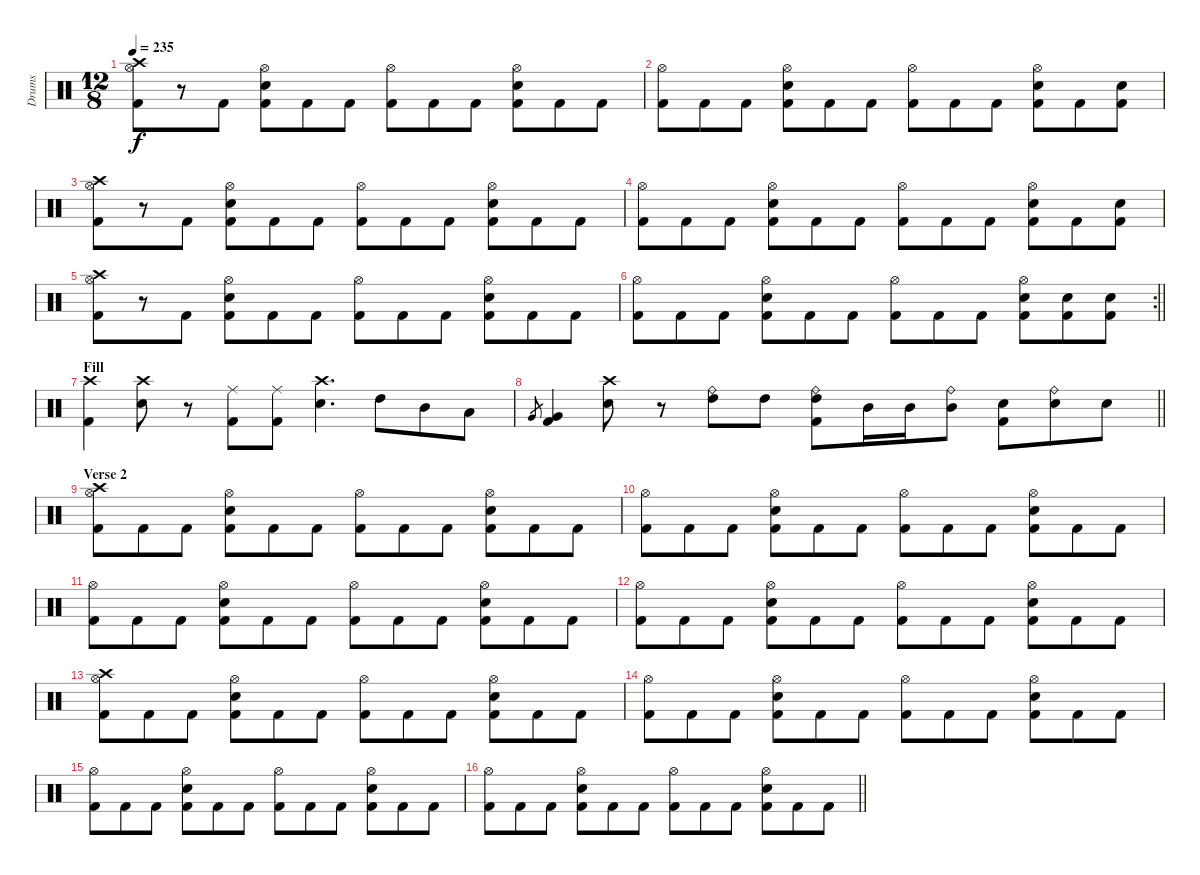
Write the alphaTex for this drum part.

\track ("Drums" "Drums") {instrument percussion}
\staff {score}
\articulation defaults
\ts (12 8)
\tempo 235
\clef neutral
\ks c
("Crash high (hit)" "Hi-Hat (open)" "Kick (hit) 2").8{dy f} r.8 "Kick (hit) 2".8 ("Hi-Hat (open)" "Snare (hit) 2" "Kick (hit) 2").8 "Kick (hit) 2".8 "Kick (hit) 2".8 ("Hi-Hat (open)" "Kick (hit) 2").8 "Kick (hit) 2".8 "Kick (hit) 2".8 ("Hi-Hat (open)" "Snare (hit) 2" "Kick (hit) 2").8 "Kick (hit) 2".8 "Kick (hit) 2".8 |
("Hi-Hat (open)" "Kick (hit) 2").8 "Kick (hit) 2".8 "Kick (hit) 2".8 ("Hi-Hat (open)" "Snare (hit) 2" "Kick (hit) 2").8 "Kick (hit) 2".8 "Kick (hit) 2".8 ("Hi-Hat (open)" "Kick (hit) 2").8 "Kick (hit) 2".8 "Kick (hit) 2".8 ("Hi-Hat (open)" "Snare (hit) 2" "Kick (hit) 2").8 "Kick (hit) 2".8 ("Snare (hit) 2" "Kick (hit) 2").8 |
("Crash high (hit)" "Hi-Hat (open)" "Kick (hit) 2").8 r.8 "Kick (hit) 2".8 ("Hi-Hat (open)" "Snare (hit) 2" "Kick (hit) 2").8 "Kick (hit) 2".8 "Kick (hit) 2".8 ("Hi-Hat (open)" "Kick (hit) 2").8 "Kick (hit) 2".8 "Kick (hit) 2".8 ("Hi-Hat (open)" "Snare (hit) 2" "Kick (hit) 2").8 "Kick (hit) 2".8 "Kick (hit) 2".8 |
("Hi-Hat (open)" "Kick (hit) 2").8 "Kick (hit) 2".8 "Kick (hit) 2".8 ("Hi-Hat (open)" "Snare (hit) 2" "Kick (hit) 2").8 "Kick (hit) 2".8 "Kick (hit) 2".8 ("Hi-Hat (open)" "Kick (hit) 2").8 "Kick (hit) 2".8 "Kick (hit) 2".8 ("Hi-Hat (open)" "Snare (hit) 2" "Kick (hit) 2").8 "Kick (hit) 2".8 ("Snare (hit) 2" "Kick (hit) 2").8 |
("Crash high (hit)" "Hi-Hat (open)" "Kick (hit) 2").8 r.8 "Kick (hit) 2".8 ("Hi-Hat (open)" "Snare (hit) 2" "Kick (hit) 2").8 "Kick (hit) 2".8 "Kick (hit) 2".8 ("Hi-Hat (open)" "Kick (hit) 2").8 "Kick (hit) 2".8 "Kick (hit) 2".8 ("Hi-Hat (open)" "Snare (hit) 2" "Kick (hit) 2").8 "Kick (hit) 2".8 "Kick (hit) 2".8 |
\rc 2
\barLineRight lightlight
("Hi-Hat (open)" "Kick (hit) 2").8 "Kick (hit) 2".8 "Kick (hit) 2".8 ("Hi-Hat (open)" "Snare (hit) 2" "Kick (hit) 2").8 "Kick (hit) 2".8 "Kick (hit) 2".8 ("Hi-Hat (open)" "Kick (hit) 2").8 "Kick (hit) 2".8 "Kick (hit) 2".8 ("Hi-Hat (open)" "Snare (hit) 2" "Kick (hit) 2").8 ("Snare (hit) 2" "Kick (hit) 2").8 ("Snare (hit) 2" "Kick (hit) 2").8 |
\section ("" "Fill")
("Crash high (hit)" "Kick (hit) 2").4 ("Crash high (hit)" "Snare (hit) 2").8 r.8 ("Ride (middle)" "Kick (hit) 2").8 ("Ride (middle)" "Kick (hit) 2").8 ("Crash high (hit)" "Snare (hit) 2").4{d} "High Tom (hit)".8 "Mid Tom (hit)".8 "Low Tom (hit)".8 |
\barLineRight lightlight "Very Low Tom (hit)".8{gr}
("Very Low Tom (hit)" "Kick (hit) 2").4 ("Crash high (hit)" "Snare (hit) 2").8 r.8 ("Ride (bell)" "High Tom (hit)").8 "High Tom (hit)".8 ("Ride (bell)" "High Tom (hit)" "Kick (hit) 2").8 "Mid Tom (hit)".16 "Mid Tom (hit)".16 ("Ride (bell)" "Mid Tom (hit)").8 ("Snare (hit) 2" "Kick (hit) 2").8 ("Ride (bell)" "Snare (hit) 2").8 "Snare (hit) 2".8 |
\section ("" "Verse 2")
("Crash high (hit)" "Hi-Hat (open)" "Kick (hit) 2").8 "Kick (hit) 2".8 "Kick (hit) 2".8 ("Hi-Hat (open)" "Snare (hit) 2" "Kick (hit) 2").8 "Kick (hit) 2".8 "Kick (hit) 2".8 ("Hi-Hat (open)" "Kick (hit) 2").8 "Kick (hit) 2".8 "Kick (hit) 2".8 ("Hi-Hat (open)" "Snare (hit) 2" "Kick (hit) 2").8 "Kick (hit) 2".8 "Kick (hit) 2".8 |
("Hi-Hat (open)" "Kick (hit) 2").8 "Kick (hit) 2".8 "Kick (hit) 2".8 ("Hi-Hat (open)" "Snare (hit) 2" "Kick (hit) 2").8 "Kick (hit) 2".8 "Kick (hit) 2".8 ("Hi-Hat (open)" "Kick (hit) 2").8 "Kick (hit) 2".8 "Kick (hit) 2".8 ("Hi-Hat (open)" "Snare (hit) 2" "Kick (hit) 2").8 "Kick (hit) 2".8 "Kick (hit) 2".8 |
("Hi-Hat (open)" "Kick (hit) 2").8 "Kick (hit) 2".8 "Kick (hit) 2".8 ("Hi-Hat (open)" "Snare (hit) 2" "Kick (hit) 2").8 "Kick (hit) 2".8 "Kick (hit) 2".8 ("Hi-Hat (open)" "Kick (hit) 2").8 "Kick (hit) 2".8 "Kick (hit) 2".8 ("Hi-Hat (open)" "Snare (hit) 2" "Kick (hit) 2").8 "Kick (hit) 2".8 "Kick (hit) 2".8 |
("Hi-Hat (open)" "Kick (hit) 2").8 "Kick (hit) 2".8 "Kick (hit) 2".8 ("Hi-Hat (open)" "Snare (hit) 2" "Kick (hit) 2").8 "Kick (hit) 2".8 "Kick (hit) 2".8 ("Hi-Hat (open)" "Kick (hit) 2").8 "Kick (hit) 2".8 "Kick (hit) 2".8 ("Hi-Hat (open)" "Snare (hit) 2" "Kick (hit) 2").8 "Kick (hit) 2".8 "Kick (hit) 2".8 |
("Crash high (hit)" "Hi-Hat (open)" "Kick (hit) 2").8 "Kick (hit) 2".8 "Kick (hit) 2".8 ("Hi-Hat (open)" "Snare (hit) 2" "Kick (hit) 2").8 "Kick (hit) 2".8 "Kick (hit) 2".8 ("Hi-Hat (open)" "Kick (hit) 2").8 "Kick (hit) 2".8 "Kick (hit) 2".8 ("Hi-Hat (open)" "Snare (hit) 2" "Kick (hit) 2").8 "Kick (hit) 2".8 "Kick (hit) 2".8 |
("Hi-Hat (open)" "Kick (hit) 2").8 "Kick (hit) 2".8 "Kick (hit) 2".8 ("Hi-Hat (open)" "Snare (hit) 2" "Kick (hit) 2").8 "Kick (hit) 2".8 "Kick (hit) 2".8 ("Hi-Hat (open)" "Kick (hit) 2").8 "Kick (hit) 2".8 "Kick (hit) 2".8 ("Hi-Hat (open)" "Snare (hit) 2" "Kick (hit) 2").8 "Kick (hit) 2".8 "Kick (hit) 2".8 |
("Hi-Hat (open)" "Kick (hit) 2").8 "Kick (hit) 2".8 "Kick (hit) 2".8 ("Hi-Hat (open)" "Snare (hit) 2" "Kick (hit) 2").8 "Kick (hit) 2".8 "Kick (hit) 2".8 ("Hi-Hat (open)" "Kick (hit) 2").8 "Kick (hit) 2".8 "Kick (hit) 2".8 ("Hi-Hat (open)" "Snare (hit) 2" "Kick (hit) 2").8 "Kick (hit) 2".8 "Kick (hit) 2".8 |
\barLineRight lightlight
("Hi-Hat (open)" "Kick (hit) 2").8 "Kick (hit) 2".8 "Kick (hit) 2".8 ("Hi-Hat (open)" "Snare (hit) 2" "Kick (hit) 2").8 "Kick (hit) 2".8 "Kick (hit) 2".8 ("Hi-Hat (open)" "Kick (hit) 2").8 "Kick (hit) 2".8 "Kick (hit) 2".8 ("Hi-Hat (open)" "Snare (hit) 2" "Kick (hit) 2").8 "Kick (hit) 2".8 "Kick (hit) 2".8
